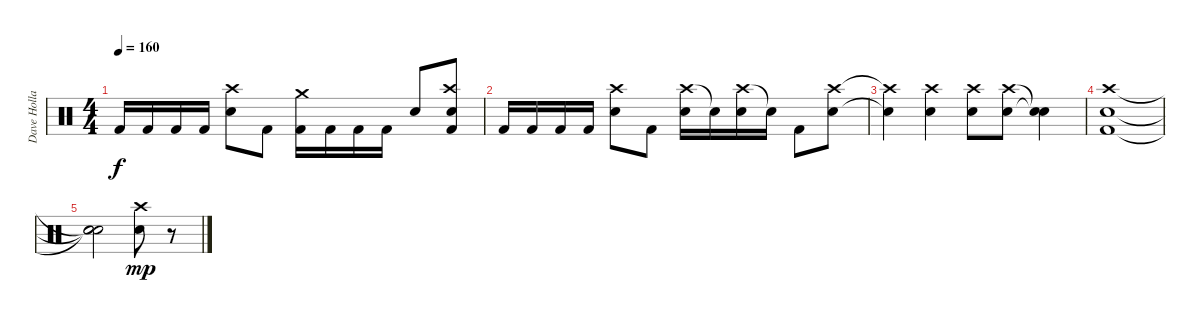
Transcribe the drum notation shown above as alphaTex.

\track ("Dave Holland" "Dave Holla") {instrument percussion}
\staff {score}
\articulation defaults
\ts (4 4)
\tempo 160
\clef neutral
\ks c "Kick (hit) 2".16{dy f} "Kick (hit) 2".16 "Kick (hit) 2".16 "Kick (hit) 2".16
("Crash high (hit)" "Snare (hit) 2").8 "Kick (hit) 2".8 ("Kick (hit) 2" "Crash medium (hit)").16 "Kick (hit) 2".16 "Kick (hit) 2".16 "Kick (hit) 2".16 "Snare (hit) 2".8 ("Kick (hit) 2" "Crash high (hit)" "Snare (hit) 2").8 |
"Kick (hit) 2".16 "Kick (hit) 2".16 "Kick (hit) 2".16 "Kick (hit) 2".16 ("Crash high (hit)" "Snare (hit) 2").8 "Kick (hit) 2".8 ("Crash high (hit)" "Snare (hit) 2").16 "Snare (hit)"{t}.16 ("Crash high (hit)" "Snare (hit) 2").16 "Snare (hit)"{t}.16 "Kick (hit) 2".8 ("Crash high (hit)" "Snare (hit) 2").8 |
("Crash high (hit)"{t} "Snare (hit) 2"{t}).4 ("Crash high (hit)" "Snare (hit) 2").4 ("Crash high (hit)" "Snare (hit) 2").8 ("Crash high (hit)" "Snare (hit) 2").8 ("Snare (hit)"{t} "Snare (hit)"{t}).4 |
("Kick (hit) 2" "Crash high (hit)" "Snare (hit) 2").1 |
("Snare (hit)"{t} "Snare (hit)"{t} "Snare (hit)"{t}).2 ("Crash high (hit)" "Snare (hit) 2").8{dy mp} r.8
